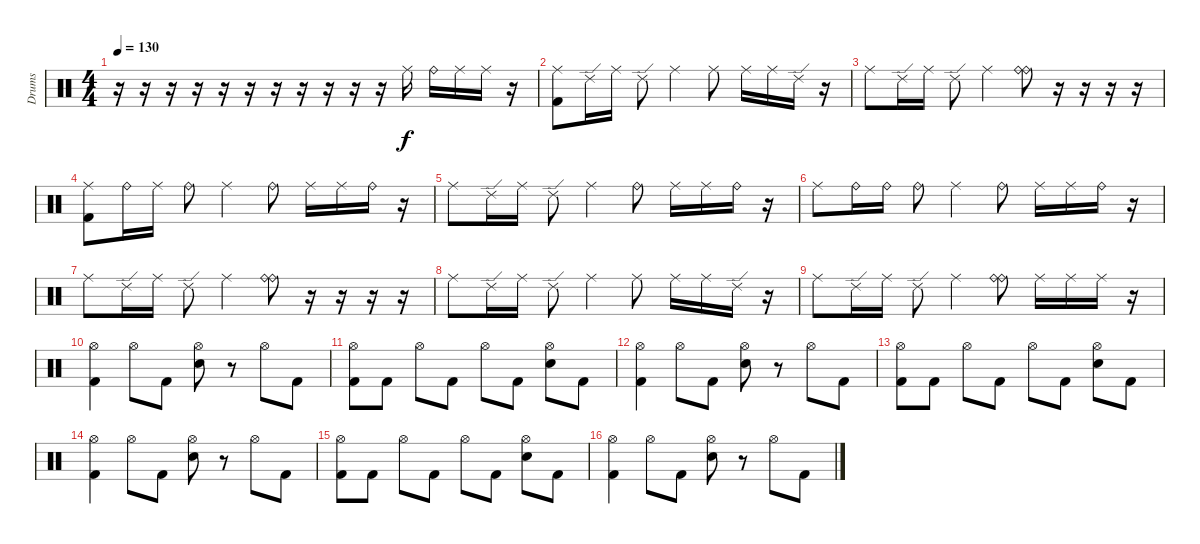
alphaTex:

\track ("Drums" "Drums") {instrument percussion}
\staff {score}
\articulation defaults
\ts (4 4)
\tempo 130
\clef neutral
\ks c
r.16{dy f} r.16 r.16 r.16 r.16 r.16 r.16 r.16 r.16 r.16 r.16 "Ride (middle)".16 "Ride (bell)".16 "Ride (middle)".16 "Ride (middle)".16 r.16 |
("Ride (middle)" "Kick (hit) 2").8 "Ride (edge) 2".16 "Ride (middle)".16 "Ride (edge) 2".8 "Ride (middle)".4 "Ride (middle)".8 "Ride (middle)".16 "Ride (middle)".16 "Ride (edge) 2".16 r.16 |
"Ride (middle)".8 "Ride (edge) 2".16 "Ride (middle)".16 "Ride (edge) 2".8 "Ride (middle)".4 ("Ride (bell)" "Ride (bell)").8 r.16 r.16 r.16 r.16 |
("Ride (middle)" "Kick (hit) 2").8 "Ride (bell)".16 "Ride (middle)".16 "Ride (bell)".8 "Ride (middle)".4 "Ride (bell)".8 "Ride (middle)".16 "Ride (middle)".16 "Ride (bell)".16 r.16 |
"Ride (middle)".8 "Ride (edge) 2".16 "Ride (middle)".16 "Ride (edge) 2".8 "Ride (middle)".4 "Ride (bell)".8 "Ride (middle)".16 "Ride (middle)".16 "Ride (bell)".16 r.16 |
"Ride (middle)".8 "Ride (bell)".16 "Ride (bell)".16 "Ride (bell)".8 "Ride (middle)".4 "Ride (bell)".8 "Ride (middle)".16 "Ride (middle)".16 "Ride (bell)".16 r.16 |
"Ride (middle)".8 "Ride (edge) 2".16 "Ride (middle)".16 "Ride (edge) 2".8 "Ride (middle)".4 ("Ride (bell)" "Ride (bell)").8 r.16 r.16 r.16 r.16 |
"Ride (middle)".8 "Ride (edge) 2".16 "Ride (middle)".16 "Ride (edge) 2".8 "Ride (middle)".4 "Ride (middle)".8 "Ride (middle)".16 "Ride (middle)".16 "Ride (edge) 2".16 r.16 |
"Ride (middle)".8 "Ride (edge) 2".16 "Ride (middle)".16 "Ride (edge) 2".8 "Ride (middle)".4 ("Ride (bell)" "Ride (bell)").8 "Ride (middle)".16 "Ride (middle)".16 "Ride (middle)".16 r.16 |
("Hi-Hat (open)" "Kick (hit) 2").4 "Hi-Hat (open)".8 "Kick (hit) 2".8 ("Hi-Hat (open)" "Electric Snare (hit)").8 r.8 "Hi-Hat (open)".8 "Kick (hit) 2".8 |
("Hi-Hat (open)" "Kick (hit) 2").8 "Kick (hit) 2".8 "Hi-Hat (open)".8 "Kick (hit) 2".8 "Hi-Hat (open)".8 "Kick (hit) 2".8 ("Hi-Hat (open)" "Electric Snare (hit)").8 "Kick (hit) 2".8 |
("Hi-Hat (open)" "Kick (hit) 2").4 "Hi-Hat (open)".8 "Kick (hit) 2".8 ("Hi-Hat (open)" "Electric Snare (hit)").8 r.8 "Hi-Hat (open)".8 "Kick (hit) 2".8 |
("Hi-Hat (open)" "Kick (hit) 2").8 "Kick (hit) 2".8 "Hi-Hat (open)".8 "Kick (hit) 2".8 "Hi-Hat (open)".8 "Kick (hit) 2".8 ("Hi-Hat (open)" "Electric Snare (hit)").8 "Kick (hit) 2".8 |
("Hi-Hat (open)" "Kick (hit) 2").4 "Hi-Hat (open)".8 "Kick (hit) 2".8 ("Hi-Hat (open)" "Electric Snare (hit)").8 r.8 "Hi-Hat (open)".8 "Kick (hit) 2".8 |
("Hi-Hat (open)" "Kick (hit) 2").8 "Kick (hit) 2".8 "Hi-Hat (open)".8 "Kick (hit) 2".8 "Hi-Hat (open)".8 "Kick (hit) 2".8 ("Hi-Hat (open)" "Electric Snare (hit)").8 "Kick (hit) 2".8 |
("Hi-Hat (open)" "Kick (hit) 2").4 "Hi-Hat (open)".8 "Kick (hit) 2".8 ("Hi-Hat (open)" "Electric Snare (hit)").8 r.8 "Hi-Hat (open)".8 "Kick (hit) 2".8
